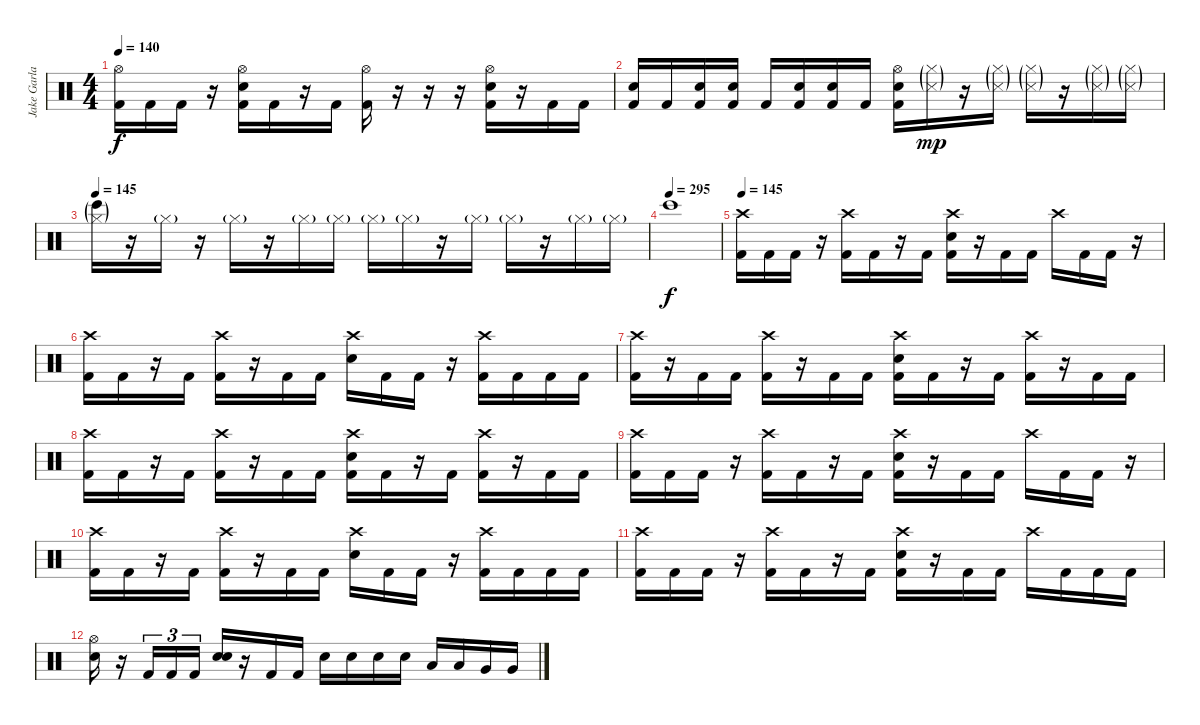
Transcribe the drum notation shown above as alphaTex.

\track ("Jake Garland" "Jake Garla") {instrument percussion}
\staff {score}
\articulation defaults
\ts (4 4)
\tempo 140
\clef neutral
\ks c
("Hi-Hat (open)" "Kick (hit) 2").16{dy f} "Kick (hit) 2".16 "Kick (hit) 2".16 r.16 ("Hi-Hat (open)" "Electric Snare (hit)" "Kick (hit) 2").16 "Kick (hit) 2".16 r.16 "Kick (hit) 2".16 ("Hi-Hat (open)" "Kick (hit) 2").16 r.16 r.16 r.16 ("Hi-Hat (open)" "Electric Snare (hit)" "Kick (hit) 2").16 r.16 "Kick (hit) 2".16 "Kick (hit) 2".16 |
("Electric Snare (hit)" "Kick (hit) 2").16 "Kick (hit) 2".16 ("Electric Snare (hit)" "Kick (hit) 2").16 ("Electric Snare (hit)" "Kick (hit) 2").16 "Kick (hit) 2".16 ("Electric Snare (hit)" "Kick (hit) 2").16 ("Electric Snare (hit)" "Kick (hit) 2").16 "Kick (hit) 2".16 ("Hi-Hat (open)" "Electric Snare (hit)" "Kick (hit) 2").16 ("Hi-Hat (closed)"{g} "Snare (side stick) 3"{g}).16{dy mp} r.16 ("Hi-Hat (closed)"{g} "Snare (side stick) 3"{g}).16 ("Hi-Hat (closed)"{g} "Snare (side stick) 3"{g}).16 r.16 ("Hi-Hat (closed)"{g} "Snare (side stick) 3"{g}).16 ("Hi-Hat (closed)"{g} "Snare (side stick) 3"{g}).16 |
\tempo 145
("Bongo High (hit)"{g} "Hi-Hat (closed)"{g}).16 r.16 "Hi-Hat (closed)"{g}.16 r.16 "Hi-Hat (closed)"{g}.16 r.16 "Hi-Hat (closed)"{g}.16 "Hi-Hat (closed)"{g}.16 "Hi-Hat (closed)"{g}.16 "Hi-Hat (closed)"{g}.16 r.16 "Hi-Hat (closed)"{g}.16 "Hi-Hat (closed)"{g}.16 r.16 "Hi-Hat (closed)"{g}.16 "Hi-Hat (closed)"{g}.16 |
\tempo 180
\tempo (295)
"Bongo High (hit)".1{dy f} |
\tempo 145
("Crash high (hit)" "Kick (hit) 2").16 "Kick (hit) 2".16 "Kick (hit) 2".16 r.16 ("Crash high (hit)" "Kick (hit) 2").16 "Kick (hit) 2".16 r.16 "Kick (hit) 2".16 ("Crash high (hit)" "Electric Snare (hit)" "Kick (hit) 2").16 r.16 "Kick (hit) 2".16 "Kick (hit) 2".16 "Crash high (hit)".16 "Kick (hit) 2".16 "Kick (hit) 2".16 r.16 |
("Crash high (hit)" "Kick (hit) 2").16 "Kick (hit) 2".16 r.16 "Kick (hit) 2".16 ("Crash high (hit)" "Kick (hit) 2").16 r.16 "Kick (hit) 2".16 "Kick (hit) 2".16 ("Crash high (hit)" "Electric Snare (hit)").16 "Kick (hit) 2".16 "Kick (hit) 2".16 r.16 ("Crash high (hit)" "Kick (hit) 2").16 "Kick (hit) 2".16 "Kick (hit) 2".16 "Kick (hit) 2".16 |
("Crash high (hit)" "Kick (hit) 2").16 r.16 "Kick (hit) 2".16 "Kick (hit) 2".16 ("Crash high (hit)" "Kick (hit) 2").16 r.16 "Kick (hit) 2".16 "Kick (hit) 2".16 ("Crash high (hit)" "Electric Snare (hit)" "Kick (hit) 2").16 "Kick (hit) 2".16 r.16 "Kick (hit) 2".16 ("Crash high (hit)" "Kick (hit) 2").16 r.16 "Kick (hit) 2".16 "Kick (hit) 2".16 |
("Crash high (hit)" "Kick (hit) 2").16 "Kick (hit) 2".16 r.16 "Kick (hit) 2".16 ("Crash high (hit)" "Kick (hit) 2").16 r.16 "Kick (hit) 2".16 "Kick (hit) 2".16 ("Crash high (hit)" "Electric Snare (hit)" "Kick (hit) 2").16 "Kick (hit) 2".16 r.16 "Kick (hit) 2".16 ("Crash high (hit)" "Kick (hit) 2").16 r.16 "Kick (hit) 2".16 "Kick (hit) 2".16 |
("Crash high (hit)" "Kick (hit) 2").16 "Kick (hit) 2".16 "Kick (hit) 2".16 r.16 ("Crash high (hit)" "Kick (hit) 2").16 "Kick (hit) 2".16 r.16 "Kick (hit) 2".16 ("Crash high (hit)" "Electric Snare (hit)" "Kick (hit) 2").16 r.16 "Kick (hit) 2".16 "Kick (hit) 2".16 "Crash high (hit)".16 "Kick (hit) 2".16 "Kick (hit) 2".16 r.16 |
("Crash high (hit)" "Kick (hit) 2").16 "Kick (hit) 2".16 r.16 "Kick (hit) 2".16 ("Crash high (hit)" "Kick (hit) 2").16 r.16 "Kick (hit) 2".16 "Kick (hit) 2".16 ("Crash high (hit)" "Electric Snare (hit)").16 "Kick (hit) 2".16 "Kick (hit) 2".16 r.16 ("Crash high (hit)" "Kick (hit) 2").16 "Kick (hit) 2".16 "Kick (hit) 2".16 "Kick (hit) 2".16 |
("Crash high (hit)" "Kick (hit) 2").16 "Kick (hit) 2".16 "Kick (hit) 2".16 r.16 ("Crash high (hit)" "Kick (hit) 2").16 "Kick (hit) 2".16 r.16 "Kick (hit) 2".16 ("Crash high (hit)" "Electric Snare (hit)" "Kick (hit) 2").16 r.16 "Kick (hit) 2".16 "Kick (hit) 2".16 "Crash high (hit)".16 "Kick (hit) 2".16 "Kick (hit) 2".16 "Kick (hit) 2".16 |
("Hi-Hat (open)" "Electric Snare (hit)").16 r.16 "Kick (hit) 2".16{tu (3 2)} "Kick (hit) 2".16{tu (3 2)} "Kick (hit) 2".16{tu (3 2)} ("Electric Snare (hit)" "Electric Snare (hit)").16 r.16 "Kick (hit) 2".16 "Kick (hit) 2".16 "Electric Snare (hit)".16 "Electric Snare (hit)".16 "Electric Snare (hit)".16 "Electric Snare (hit)".16 "Low Tom (hit)".16 "Low Tom (hit)".16 "Very Low Tom (hit)".16 "Very Low Tom (hit)".16
